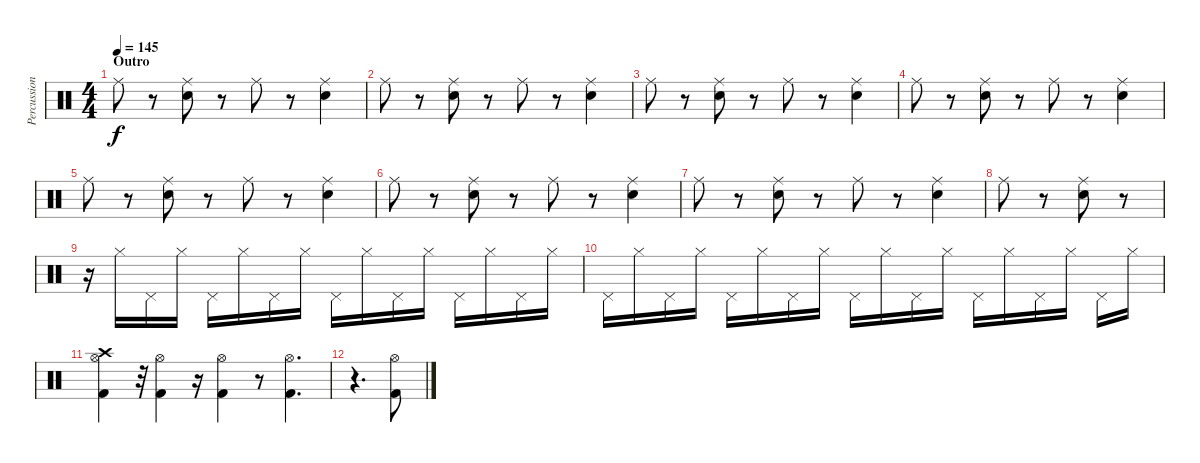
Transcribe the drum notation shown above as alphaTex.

\track ("Percussion" "Percussion") {instrument percussion}
\staff {score}
\articulation defaults
\ts (4 4)
\section ("" "Outro")
\tempo 145
\clef neutral
\ks c "Ride (middle)".8{dy f}
r.8 ("Ride (middle)" "Electric Snare (hit)").8 r.8 "Ride (middle)".8 r.8 ("Ride (middle)" "Electric Snare (hit)").4 |
"Ride (middle)".8 r.8 ("Ride (middle)" "Electric Snare (hit)").8 r.8 "Ride (middle)".8 r.8 ("Ride (middle)" "Electric Snare (hit)").4 |
"Ride (middle)".8 r.8 ("Ride (middle)" "Electric Snare (hit)").8 r.8 "Ride (middle)".8 r.8 ("Ride (middle)" "Electric Snare (hit)").4 |
"Ride (middle)".8 r.8 ("Ride (middle)" "Electric Snare (hit)").8 r.8 "Ride (middle)".8 r.8 ("Ride (middle)" "Electric Snare (hit)").4 |
"Ride (middle)".8 r.8 ("Ride (middle)" "Electric Snare (hit)").8 r.8 "Ride (middle)".8 r.8 ("Ride (middle)" "Electric Snare (hit)").4 |
"Ride (middle)".8 r.8 ("Ride (middle)" "Electric Snare (hit)").8 r.8 "Ride (middle)".8 r.8 ("Ride (middle)" "Electric Snare (hit)").4 |
"Ride (middle)".8 r.8 ("Ride (middle)" "Electric Snare (hit)").8 r.8 "Ride (middle)".8 r.8 ("Ride (middle)" "Electric Snare (hit)").4 |
"Ride (middle)".8 r.8 ("Ride (middle)" "Electric Snare (hit)").8 r.8 |
r.16 "Hi-Hat (closed)".16 "Pedal Hi-Hat (hit)".16 "Hi-Hat (closed)".16 "Pedal Hi-Hat (hit)".16 "Hi-Hat (closed)".16 "Pedal Hi-Hat (hit)".16 "Hi-Hat (closed)".16 "Pedal Hi-Hat (hit)".16 "Hi-Hat (closed)".16 "Pedal Hi-Hat (hit)".16 "Hi-Hat (closed)".16 "Pedal Hi-Hat (hit)".16 "Hi-Hat (closed)".16 "Pedal Hi-Hat (hit)".16 "Hi-Hat (closed)".16 |
"Pedal Hi-Hat (hit)".16 "Hi-Hat (closed)".16 "Pedal Hi-Hat (hit)".16 "Hi-Hat (closed)".16 "Pedal Hi-Hat (hit)".16 "Hi-Hat (closed)".16 "Pedal Hi-Hat (hit)".16 "Hi-Hat (closed)".16 "Pedal Hi-Hat (hit)".16 "Hi-Hat (closed)".16 "Pedal Hi-Hat (hit)".16 "Hi-Hat (closed)".16 "Pedal Hi-Hat (hit)".16 "Hi-Hat (closed)".16 "Pedal Hi-Hat (hit)".16 "Hi-Hat (closed)".16 "Pedal Hi-Hat (hit)".16 "Hi-Hat (closed)".16 |
("Crash high (hit)" "Hi-Hat (open)" "Kick (hit) 2").4 r.32 ("Hi-Hat (open)" "Kick (hit) 2").4 r.16 ("Hi-Hat (open)" "Kick (hit) 2").4 r.8 ("Hi-Hat (open)" "Kick (hit) 2").4{d} |
r.4{d} ("Hi-Hat (open)" "Kick (hit) 2").8
